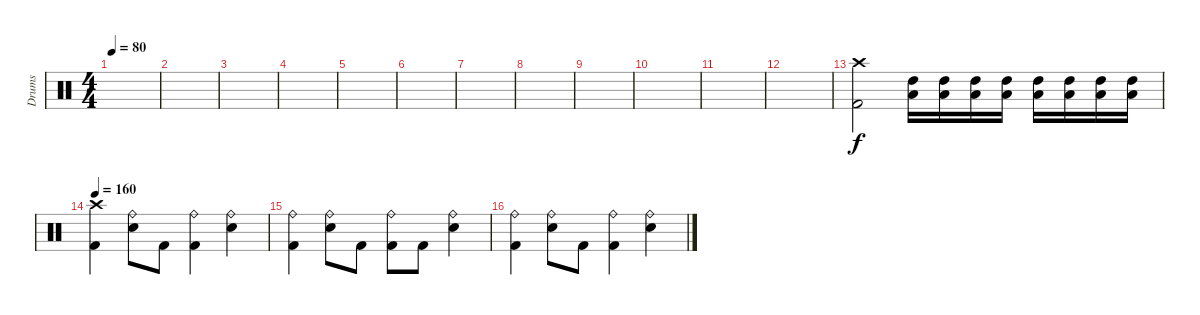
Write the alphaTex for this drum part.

\track ("Drums" "Drums") {instrument percussion}
\staff {score}
\articulation defaults
\ts (4 4)
\tempo 80
\clef neutral
\ks c
|
|
|
|
|
|
|
|
|
|
|
|
("Crash high (hit)" "Kick (hit) 2").2 ("Low Tom (hit)" "High Tom (hit)").16 ("Low Tom (hit)" "High Tom (hit)").16 ("Low Tom (hit)" "High Tom (hit)").16 ("Low Tom (hit)" "High Tom (hit)").16 ("Low Tom (hit)" "High Tom (hit)").16 ("Low Tom (hit)" "High Tom (hit)").16 ("Low Tom (hit)" "High Tom (hit)").16 ("Low Tom (hit)" "High Tom (hit)").16 |
\tempo 160
("Crash high (hit)" "Kick (hit) 2").4 ("Ride (bell)" "Electric Snare (hit)").8 "Kick (hit) 2".8 ("Ride (bell)" "Kick (hit) 2").4 ("Ride (bell)" "Electric Snare (hit)").4 |
("Ride (bell)" "Kick (hit) 2").4 ("Ride (bell)" "Electric Snare (hit)").8 "Kick (hit) 2".8 ("Ride (bell)" "Kick (hit) 2").8 "Kick (hit) 2".8 ("Ride (bell)" "Electric Snare (hit)").4 |
("Ride (bell)" "Kick (hit) 2").4 ("Ride (bell)" "Electric Snare (hit)").8 "Kick (hit) 2".8 ("Ride (bell)" "Kick (hit) 2").4 ("Ride (bell)" "Electric Snare (hit)").4
